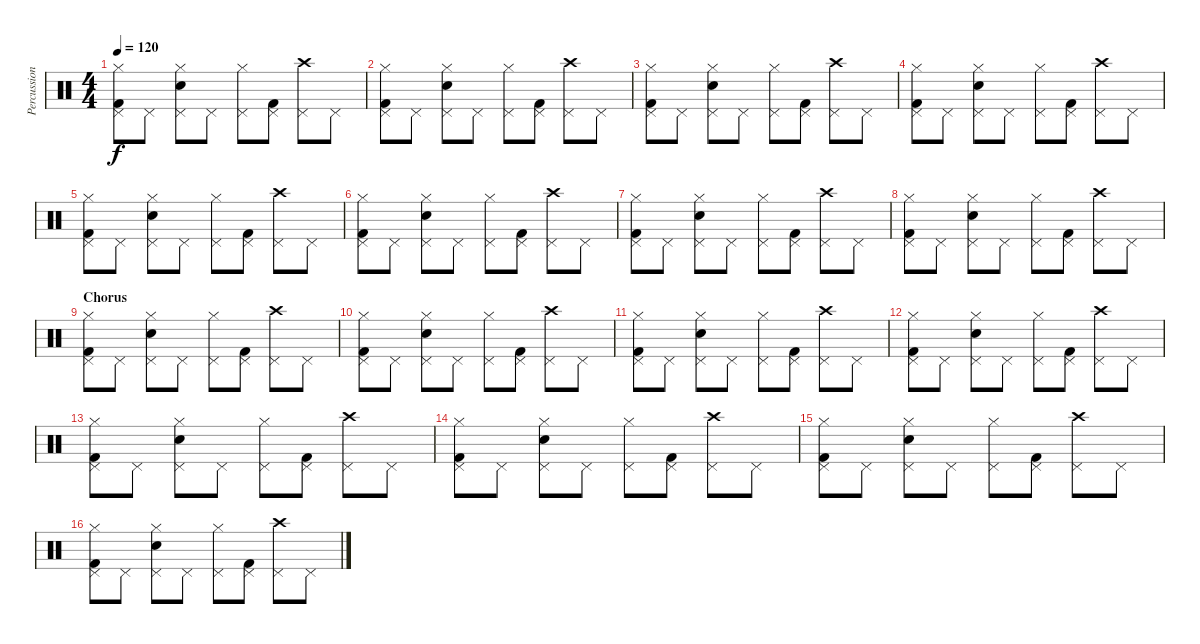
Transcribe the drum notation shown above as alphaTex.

\track ("Percussion" "Percussion") {instrument percussion}
\staff {score}
\articulation defaults
\ts (4 4)
\tempo 120
\clef neutral
\ks c
("Hi-Hat (closed)" "Pedal Hi-Hat (hit)" "Kick (hit) 2").8{dy f} "Pedal Hi-Hat (hit)".8 ("Hi-Hat (closed)" "Pedal Hi-Hat (hit)" "Snare (hit) 2").8 "Pedal Hi-Hat (hit)".8 ("Hi-Hat (closed)" "Pedal Hi-Hat (hit)").8 ("Pedal Hi-Hat (hit)" "Kick (hit) 2").8 ("Crash high (hit)" "Pedal Hi-Hat (hit)").8 "Pedal Hi-Hat (hit)".8 |
("Hi-Hat (closed)" "Pedal Hi-Hat (hit)" "Kick (hit) 2").8 "Pedal Hi-Hat (hit)".8 ("Hi-Hat (closed)" "Pedal Hi-Hat (hit)" "Snare (hit) 2").8 "Pedal Hi-Hat (hit)".8 ("Hi-Hat (closed)" "Pedal Hi-Hat (hit)").8 ("Pedal Hi-Hat (hit)" "Kick (hit) 2").8 ("Crash high (hit)" "Pedal Hi-Hat (hit)").8 "Pedal Hi-Hat (hit)".8 |
("Hi-Hat (closed)" "Pedal Hi-Hat (hit)" "Kick (hit) 2").8 "Pedal Hi-Hat (hit)".8 ("Hi-Hat (closed)" "Pedal Hi-Hat (hit)" "Snare (hit) 2").8 "Pedal Hi-Hat (hit)".8 ("Hi-Hat (closed)" "Pedal Hi-Hat (hit)").8 ("Pedal Hi-Hat (hit)" "Kick (hit) 2").8 ("Crash high (hit)" "Pedal Hi-Hat (hit)").8 "Pedal Hi-Hat (hit)".8 |
("Hi-Hat (closed)" "Pedal Hi-Hat (hit)" "Kick (hit) 2").8 "Pedal Hi-Hat (hit)".8 ("Hi-Hat (closed)" "Pedal Hi-Hat (hit)" "Snare (hit) 2").8 "Pedal Hi-Hat (hit)".8 ("Hi-Hat (closed)" "Pedal Hi-Hat (hit)").8 ("Pedal Hi-Hat (hit)" "Kick (hit) 2").8 ("Crash high (hit)" "Pedal Hi-Hat (hit)").8 "Pedal Hi-Hat (hit)".8 |
("Hi-Hat (closed)" "Pedal Hi-Hat (hit)" "Kick (hit) 2").8 "Pedal Hi-Hat (hit)".8 ("Hi-Hat (closed)" "Pedal Hi-Hat (hit)" "Snare (hit) 2").8 "Pedal Hi-Hat (hit)".8 ("Hi-Hat (closed)" "Pedal Hi-Hat (hit)").8 ("Pedal Hi-Hat (hit)" "Kick (hit) 2").8 ("Crash high (hit)" "Pedal Hi-Hat (hit)").8 "Pedal Hi-Hat (hit)".8 |
("Hi-Hat (closed)" "Pedal Hi-Hat (hit)" "Kick (hit) 2").8 "Pedal Hi-Hat (hit)".8 ("Hi-Hat (closed)" "Pedal Hi-Hat (hit)" "Snare (hit) 2").8 "Pedal Hi-Hat (hit)".8 ("Hi-Hat (closed)" "Pedal Hi-Hat (hit)").8 ("Pedal Hi-Hat (hit)" "Kick (hit) 2").8 ("Crash high (hit)" "Pedal Hi-Hat (hit)").8 "Pedal Hi-Hat (hit)".8 |
("Hi-Hat (closed)" "Pedal Hi-Hat (hit)" "Kick (hit) 2").8 "Pedal Hi-Hat (hit)".8 ("Hi-Hat (closed)" "Pedal Hi-Hat (hit)" "Snare (hit) 2").8 "Pedal Hi-Hat (hit)".8 ("Hi-Hat (closed)" "Pedal Hi-Hat (hit)").8 ("Pedal Hi-Hat (hit)" "Kick (hit) 2").8 ("Crash high (hit)" "Pedal Hi-Hat (hit)").8 "Pedal Hi-Hat (hit)".8 |
("Hi-Hat (closed)" "Pedal Hi-Hat (hit)" "Kick (hit) 2").8 "Pedal Hi-Hat (hit)".8 ("Hi-Hat (closed)" "Pedal Hi-Hat (hit)" "Snare (hit) 2").8 "Pedal Hi-Hat (hit)".8 ("Hi-Hat (closed)" "Pedal Hi-Hat (hit)").8 ("Pedal Hi-Hat (hit)" "Kick (hit) 2").8 ("Crash high (hit)" "Pedal Hi-Hat (hit)").8 "Pedal Hi-Hat (hit)".8 |
\section ("" "Chorus")
("Hi-Hat (closed)" "Pedal Hi-Hat (hit)" "Kick (hit) 2").8 "Pedal Hi-Hat (hit)".8 ("Hi-Hat (closed)" "Pedal Hi-Hat (hit)" "Snare (hit) 2").8 "Pedal Hi-Hat (hit)".8 ("Hi-Hat (closed)" "Pedal Hi-Hat (hit)").8 ("Pedal Hi-Hat (hit)" "Kick (hit) 2").8 ("Crash high (hit)" "Pedal Hi-Hat (hit)").8 "Pedal Hi-Hat (hit)".8 |
("Hi-Hat (closed)" "Pedal Hi-Hat (hit)" "Kick (hit) 2").8 "Pedal Hi-Hat (hit)".8 ("Hi-Hat (closed)" "Pedal Hi-Hat (hit)" "Snare (hit) 2").8 "Pedal Hi-Hat (hit)".8 ("Hi-Hat (closed)" "Pedal Hi-Hat (hit)").8 ("Pedal Hi-Hat (hit)" "Kick (hit) 2").8 ("Crash high (hit)" "Pedal Hi-Hat (hit)").8 "Pedal Hi-Hat (hit)".8 |
("Hi-Hat (closed)" "Pedal Hi-Hat (hit)" "Kick (hit) 2").8 "Pedal Hi-Hat (hit)".8 ("Hi-Hat (closed)" "Pedal Hi-Hat (hit)" "Snare (hit) 2").8 "Pedal Hi-Hat (hit)".8 ("Hi-Hat (closed)" "Pedal Hi-Hat (hit)").8 ("Pedal Hi-Hat (hit)" "Kick (hit) 2").8 ("Crash high (hit)" "Pedal Hi-Hat (hit)").8 "Pedal Hi-Hat (hit)".8 |
("Hi-Hat (closed)" "Pedal Hi-Hat (hit)" "Kick (hit) 2").8 "Pedal Hi-Hat (hit)".8 ("Hi-Hat (closed)" "Pedal Hi-Hat (hit)" "Snare (hit) 2").8 "Pedal Hi-Hat (hit)".8 ("Hi-Hat (closed)" "Pedal Hi-Hat (hit)").8 ("Pedal Hi-Hat (hit)" "Kick (hit) 2").8 ("Crash high (hit)" "Pedal Hi-Hat (hit)").8 "Pedal Hi-Hat (hit)".8 |
("Hi-Hat (closed)" "Pedal Hi-Hat (hit)" "Kick (hit) 2").8 "Pedal Hi-Hat (hit)".8 ("Hi-Hat (closed)" "Pedal Hi-Hat (hit)" "Snare (hit) 2").8 "Pedal Hi-Hat (hit)".8 ("Hi-Hat (closed)" "Pedal Hi-Hat (hit)").8 ("Pedal Hi-Hat (hit)" "Kick (hit) 2").8 ("Crash high (hit)" "Pedal Hi-Hat (hit)").8 "Pedal Hi-Hat (hit)".8 |
("Hi-Hat (closed)" "Pedal Hi-Hat (hit)" "Kick (hit) 2").8 "Pedal Hi-Hat (hit)".8 ("Hi-Hat (closed)" "Pedal Hi-Hat (hit)" "Snare (hit) 2").8 "Pedal Hi-Hat (hit)".8 ("Hi-Hat (closed)" "Pedal Hi-Hat (hit)").8 ("Pedal Hi-Hat (hit)" "Kick (hit) 2").8 ("Crash high (hit)" "Pedal Hi-Hat (hit)").8 "Pedal Hi-Hat (hit)".8 |
("Hi-Hat (closed)" "Pedal Hi-Hat (hit)" "Kick (hit) 2").8 "Pedal Hi-Hat (hit)".8 ("Hi-Hat (closed)" "Pedal Hi-Hat (hit)" "Snare (hit) 2").8 "Pedal Hi-Hat (hit)".8 ("Hi-Hat (closed)" "Pedal Hi-Hat (hit)").8 ("Pedal Hi-Hat (hit)" "Kick (hit) 2").8 ("Crash high (hit)" "Pedal Hi-Hat (hit)").8 "Pedal Hi-Hat (hit)".8 |
("Hi-Hat (closed)" "Pedal Hi-Hat (hit)" "Kick (hit) 2").8 "Pedal Hi-Hat (hit)".8 ("Hi-Hat (closed)" "Pedal Hi-Hat (hit)" "Snare (hit) 2").8 "Pedal Hi-Hat (hit)".8 ("Hi-Hat (closed)" "Pedal Hi-Hat (hit)").8 ("Pedal Hi-Hat (hit)" "Kick (hit) 2").8 ("Crash high (hit)" "Pedal Hi-Hat (hit)").8 "Pedal Hi-Hat (hit)".8
